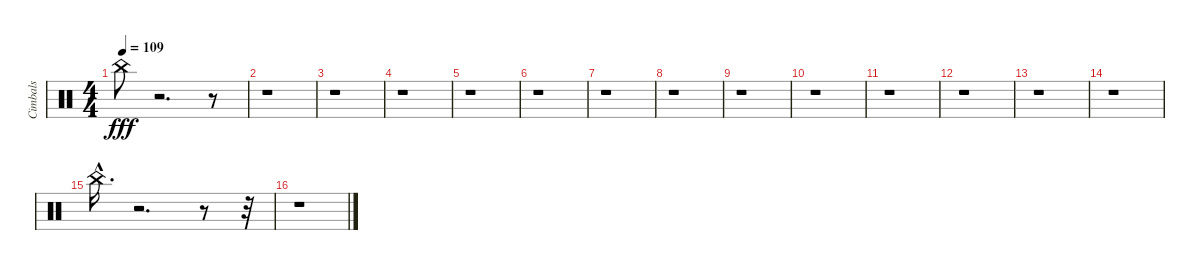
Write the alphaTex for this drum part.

\track ("Cimbals" "Cimbals") {instrument percussion}
\staff {score}
\articulation defaults
\ts (4 4)
\tempo 109
\clef neutral
\ks c "China (choke)".8{dy fff}
r.2{d} r.8 |
r.1 |
r.1 |
r.1 |
r.1 |
r.1 |
r.1 |
r.1 |
r.1 |
r.1 |
r.1 |
r.1 |
r.1 |
r.1 |
"China (choke)"{hac}.16{d} r.2{d} r.8 r.32 |
r.1
